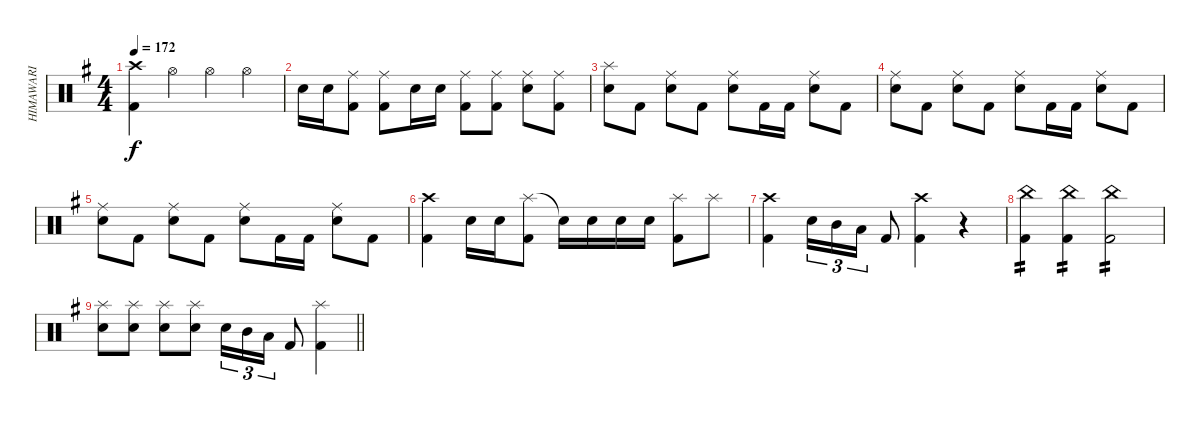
\track ("HIMAWARI" "HIMAWARI") {instrument percussion}
\staff {score}
\articulation defaults
\ts (4 4)
\tempo 172
\clef neutral
\ks g
("Crash high (hit)" "Kick (hit) 2").4{dy f} "Hi-Hat (open)".4 "Hi-Hat (open)".4 "Hi-Hat (open)".4 |
"Snare (hit) 2".16 "Snare (hit) 2".16 ("Ride (middle)" "Kick (hit) 2").8 ("Ride (middle)" "Kick (hit) 2").8 "Snare (hit) 2".16 "Snare (hit) 2".16 ("Ride (middle)" "Kick (hit) 2").8 ("Ride (middle)" "Kick (hit) 2").8 ("Ride (middle)" "Snare (hit) 2").8 ("Ride (middle)" "Kick (hit) 2").8 |
("Splash (hit)" "Snare (hit) 2").8 "Kick (hit) 2".8 ("Ride (middle)" "Snare (hit) 2").8 "Kick (hit) 2".8 ("Ride (middle)" "Snare (hit) 2").8 "Kick (hit) 2".16 "Kick (hit) 2".16 ("Ride (middle)" "Snare (hit) 2").8 "Kick (hit) 2".8 |
("Ride (middle)" "Snare (hit) 2").8 "Kick (hit) 2".8 ("Ride (middle)" "Snare (hit) 2").8 "Kick (hit) 2".8 ("Ride (middle)" "Snare (hit) 2").8 "Kick (hit) 2".16 "Kick (hit) 2".16 ("Ride (middle)" "Snare (hit) 2").8 "Kick (hit) 2".8 |
("Ride (middle)" "Snare (hit) 2").8 "Kick (hit) 2".8 ("Ride (middle)" "Snare (hit) 2").8 "Kick (hit) 2".8 ("Ride (middle)" "Snare (hit) 2").8 "Kick (hit) 2".16 "Kick (hit) 2".16 ("Ride (middle)" "Snare (hit) 2").8 "Kick (hit) 2".8 |
("Crash high (hit)" "Kick (hit) 2").4 "Snare (hit) 2".16 "Snare (hit) 2".16 ("Splash (hit)" "Kick (hit) 2").8 "Snare (hit)"{t}.16 "Snare (hit) 2".16 "Snare (hit) 2".16 "Snare (hit) 2".16 ("Splash (hit)" "Kick (hit) 2").8 "Splash (hit)".8 |
("Crash high (hit)" "Kick (hit) 2").4 "Snare (hit) 2".16{tu (3 2)} "Mid Tom (hit)".16{tu (3 2)} "Low Tom (hit)".16{tu (3 2)} "Kick (hit) 2".8 ("Crash high (hit)" "Kick (hit) 2").4 r.4 |
("China (hit)" "Kick (hit) 2").4{tp 2} ("China (hit)" "Kick (hit) 2").4{tp 2} ("China (hit)" "Kick (hit) 2").2{tp 2} |
\barLineRight lightlight
("Splash (hit)" "Snare (hit) 2").8 ("Splash (hit)" "Snare (hit) 2").8 ("Splash (hit)" "Snare (hit) 2").8 ("Splash (hit)" "Snare (hit) 2").8 "Snare (hit) 2".16{tu (3 2)} "Mid Tom (hit)".16{tu (3 2)} "Low Tom (hit)".16{tu (3 2)} "Kick (hit) 2".8 ("Splash (hit)" "Kick (hit) 2").4
